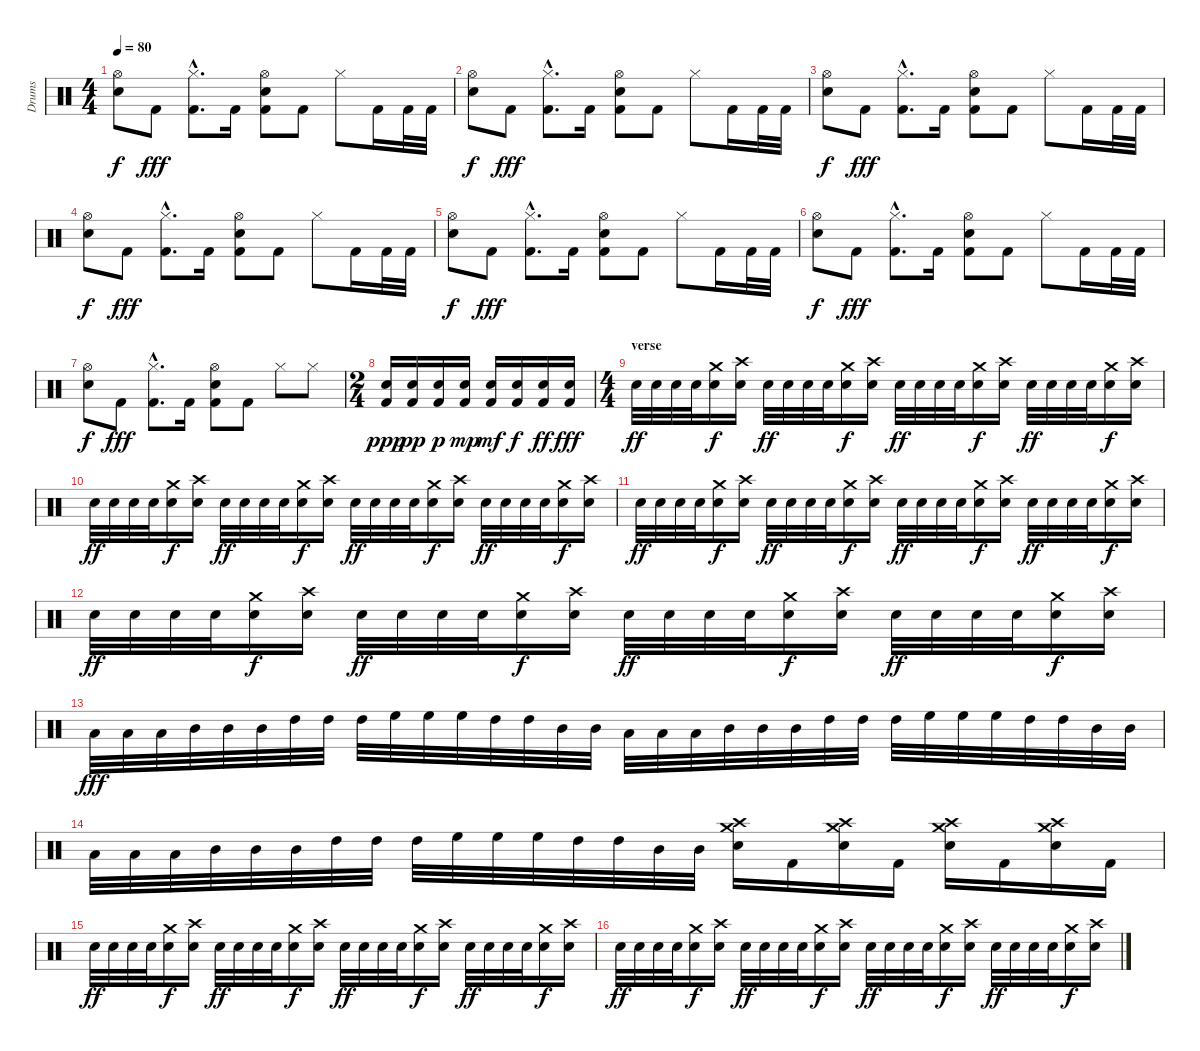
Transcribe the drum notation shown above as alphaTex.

\track ("Drums" "Drums") {instrument percussion}
\staff {score}
\articulation defaults
\ts (4 4)
\tempo 80
\clef neutral
\ks c
("Hi-Hat (open)" "Electric Snare (hit)").8{dy f} "Kick (hit) 2".8{dy fff} ("Hi-Hat (closed)"{hac} "Kick (hit) 2"{hac}).8{d} "Kick (hit) 2".16 ("Hi-Hat (open)" "Kick (hit) 2" "Snare (hit) 2").8 "Kick (hit) 2".8 "Hi-Hat (closed)".8 "Kick (hit) 2".16 "Kick (hit) 2".32 "Kick (hit) 2".32 |
("Hi-Hat (open)" "Electric Snare (hit)").8{dy f} "Kick (hit) 2".8{dy fff} ("Hi-Hat (closed)"{hac} "Kick (hit) 2"{hac}).8{d} "Kick (hit) 2".16 ("Hi-Hat (open)" "Kick (hit) 2" "Snare (hit) 2").8 "Kick (hit) 2".8 "Hi-Hat (closed)".8 "Kick (hit) 2".16 "Kick (hit) 2".32 "Kick (hit) 2".32 |
("Hi-Hat (open)" "Electric Snare (hit)").8{dy f} "Kick (hit) 2".8{dy fff} ("Hi-Hat (closed)"{hac} "Kick (hit) 2"{hac}).8{d} "Kick (hit) 2".16 ("Hi-Hat (open)" "Kick (hit) 2" "Snare (hit) 2").8 "Kick (hit) 2".8 "Hi-Hat (closed)".8 "Kick (hit) 2".16 "Kick (hit) 2".32 "Kick (hit) 2".32 |
("Hi-Hat (open)" "Electric Snare (hit)").8{dy f} "Kick (hit) 2".8{dy fff} ("Hi-Hat (closed)"{hac} "Kick (hit) 2"{hac}).8{d} "Kick (hit) 2".16 ("Hi-Hat (open)" "Kick (hit) 2" "Snare (hit) 2").8 "Kick (hit) 2".8 "Hi-Hat (closed)".8 "Kick (hit) 2".16 "Kick (hit) 2".32 "Kick (hit) 2".32 |
("Hi-Hat (open)" "Electric Snare (hit)").8{dy f} "Kick (hit) 2".8{dy fff} ("Hi-Hat (closed)"{hac} "Kick (hit) 2"{hac}).8{d} "Kick (hit) 2".16 ("Hi-Hat (open)" "Kick (hit) 2" "Snare (hit) 2").8 "Kick (hit) 2".8 "Hi-Hat (closed)".8 "Kick (hit) 2".16 "Kick (hit) 2".32 "Kick (hit) 2".32 |
("Hi-Hat (open)" "Electric Snare (hit)").8{dy f} "Kick (hit) 2".8{dy fff} ("Hi-Hat (closed)"{hac} "Kick (hit) 2"{hac}).8{d} "Kick (hit) 2".16 ("Hi-Hat (open)" "Kick (hit) 2" "Snare (hit) 2").8 "Kick (hit) 2".8 "Hi-Hat (closed)".8 "Kick (hit) 2".16 "Kick (hit) 2".32 "Kick (hit) 2".32 |
("Hi-Hat (open)" "Electric Snare (hit)").8{dy f} "Kick (hit) 2".8{dy fff} ("Hi-Hat (closed)"{hac} "Kick (hit) 2"{hac}).8{d} "Kick (hit) 2".16 ("Hi-Hat (open)" "Kick (hit) 2" "Snare (hit) 2").8 "Kick (hit) 2".8 "Hi-Hat (closed)".8 "Hi-Hat (closed)".8 |
\ts (2 4)
("Electric Snare (hit)" "Kick (hit) 2").16{dy ppp} ("Electric Snare (hit)" "Kick (hit) 2").16{dy pp} ("Electric Snare (hit)" "Kick (hit) 2").16{dy p} ("Electric Snare (hit)" "Kick (hit) 2").16{dy mp} ("Electric Snare (hit)" "Kick (hit) 2").16{dy mf} ("Electric Snare (hit)" "Kick (hit) 2").16{dy f} ("Electric Snare (hit)" "Kick (hit) 2").16{dy ff} ("Electric Snare (hit)" "Kick (hit) 2").16{dy fff} |
\ts (4 4)
\section ("" "verse")
"Electric Snare (hit)".32{dy ff} "Electric Snare (hit)".32 "Electric Snare (hit)".32 "Electric Snare (hit)".32 ("Snare (hit) 2" "Crash medium (hit)").16{dy f} ("Snare (hit) 2" "Crash high (hit)").16 "Electric Snare (hit)".32{dy ff} "Electric Snare (hit)".32 "Electric Snare (hit)".32 "Electric Snare (hit)".32 ("Snare (hit) 2" "Crash medium (hit)").16{dy f} ("Snare (hit) 2" "Crash high (hit)").16 "Electric Snare (hit)".32{dy ff} "Electric Snare (hit)".32 "Electric Snare (hit)".32 "Electric Snare (hit)".32 ("Snare (hit) 2" "Crash medium (hit)").16{dy f} ("Snare (hit) 2" "Crash high (hit)").16 "Electric Snare (hit)".32{dy ff} "Electric Snare (hit)".32 "Electric Snare (hit)".32 "Electric Snare (hit)".32 ("Snare (hit) 2" "Crash medium (hit)").16{dy f} ("Snare (hit) 2" "Crash high (hit)").16 |
"Electric Snare (hit)".32{dy ff} "Electric Snare (hit)".32 "Electric Snare (hit)".32 "Electric Snare (hit)".32 ("Snare (hit) 2" "Crash medium (hit)").16{dy f} ("Snare (hit) 2" "Crash high (hit)").16 "Electric Snare (hit)".32{dy ff} "Electric Snare (hit)".32 "Electric Snare (hit)".32 "Electric Snare (hit)".32 ("Snare (hit) 2" "Crash medium (hit)").16{dy f} ("Snare (hit) 2" "Crash high (hit)").16 "Electric Snare (hit)".32{dy ff} "Electric Snare (hit)".32 "Electric Snare (hit)".32 "Electric Snare (hit)".32 ("Snare (hit) 2" "Crash medium (hit)").16{dy f} ("Snare (hit) 2" "Crash high (hit)").16 "Electric Snare (hit)".32{dy ff} "Electric Snare (hit)".32 "Electric Snare (hit)".32 "Electric Snare (hit)".32 ("Snare (hit) 2" "Crash medium (hit)").16{dy f} ("Snare (hit) 2" "Crash high (hit)").16 |
"Electric Snare (hit)".32{dy ff} "Electric Snare (hit)".32 "Electric Snare (hit)".32 "Electric Snare (hit)".32 ("Snare (hit) 2" "Crash medium (hit)").16{dy f} ("Snare (hit) 2" "Crash high (hit)").16 "Electric Snare (hit)".32{dy ff} "Electric Snare (hit)".32 "Electric Snare (hit)".32 "Electric Snare (hit)".32 ("Snare (hit) 2" "Crash medium (hit)").16{dy f} ("Snare (hit) 2" "Crash high (hit)").16 "Electric Snare (hit)".32{dy ff} "Electric Snare (hit)".32 "Electric Snare (hit)".32 "Electric Snare (hit)".32 ("Snare (hit) 2" "Crash medium (hit)").16{dy f} ("Snare (hit) 2" "Crash high (hit)").16 "Electric Snare (hit)".32{dy ff} "Electric Snare (hit)".32 "Electric Snare (hit)".32 "Electric Snare (hit)".32 ("Snare (hit) 2" "Crash medium (hit)").16{dy f} ("Snare (hit) 2" "Crash high (hit)").16 |
"Electric Snare (hit)".32{dy ff} "Electric Snare (hit)".32 "Electric Snare (hit)".32 "Electric Snare (hit)".32 ("Snare (hit) 2" "Crash medium (hit)").16{dy f} ("Snare (hit) 2" "Crash high (hit)").16 "Electric Snare (hit)".32{dy ff} "Electric Snare (hit)".32 "Electric Snare (hit)".32 "Electric Snare (hit)".32 ("Snare (hit) 2" "Crash medium (hit)").16{dy f} ("Snare (hit) 2" "Crash high (hit)").16 "Electric Snare (hit)".32{dy ff} "Electric Snare (hit)".32 "Electric Snare (hit)".32 "Electric Snare (hit)".32 ("Snare (hit) 2" "Crash medium (hit)").16{dy f} ("Snare (hit) 2" "Crash high (hit)").16 "Electric Snare (hit)".32{dy ff} "Electric Snare (hit)".32 "Electric Snare (hit)".32 "Electric Snare (hit)".32 ("Snare (hit) 2" "Crash medium (hit)").16{dy f} ("Snare (hit) 2" "Crash high (hit)").16 |
"Low Tom (hit)".32{dy fff} "Low Tom (hit)".32 "Low Tom (hit)".32 "Mid Tom (hit)".32 "Mid Tom (hit)".32 "Mid Tom (hit)".32 "High Tom (hit)".32 "High Tom (hit)".32 "High Tom (hit)".32 "High Floor Tom (hit)".32 "High Floor Tom (hit)".32 "High Floor Tom (hit)".32 "High Tom (hit)".32 "High Tom (hit)".32 "Mid Tom (hit)".32 "Mid Tom (hit)".32 "Low Tom (hit)".32 "Low Tom (hit)".32 "Low Tom (hit)".32 "Mid Tom (hit)".32 "Mid Tom (hit)".32 "Mid Tom (hit)".32 "High Tom (hit)".32 "High Tom (hit)".32 "High Tom (hit)".32 "High Floor Tom (hit)".32 "High Floor Tom (hit)".32 "High Floor Tom (hit)".32 "High Tom (hit)".32 "High Tom (hit)".32 "Mid Tom (hit)".32 "Mid Tom (hit)".32 |
"Low Tom (hit)".32 "Low Tom (hit)".32 "Low Tom (hit)".32 "Mid Tom (hit)".32 "Mid Tom (hit)".32 "Mid Tom (hit)".32 "High Tom (hit)".32 "High Tom (hit)".32 "High Tom (hit)".32 "High Floor Tom (hit)".32 "High Floor Tom (hit)".32 "High Floor Tom (hit)".32 "High Tom (hit)".32 "High Tom (hit)".32 "Mid Tom (hit)".32 "Mid Tom (hit)".32 ("Crash high (hit)" "Crash medium (hit)" "Electric Snare (hit)").16 "Kick (hit) 2".16 ("Crash high (hit)" "Crash medium (hit)" "Electric Snare (hit)").16 "Kick (hit) 2".16 ("Crash high (hit)" "Crash medium (hit)" "Electric Snare (hit)").16 "Kick (hit) 2".16 ("Crash high (hit)" "Crash medium (hit)" "Electric Snare (hit)").16 "Kick (hit) 2".16 |
"Electric Snare (hit)".32{dy ff} "Electric Snare (hit)".32 "Electric Snare (hit)".32 "Electric Snare (hit)".32 ("Snare (hit) 2" "Crash medium (hit)").16{dy f} ("Snare (hit) 2" "Crash high (hit)").16 "Electric Snare (hit)".32{dy ff} "Electric Snare (hit)".32 "Electric Snare (hit)".32 "Electric Snare (hit)".32 ("Snare (hit) 2" "Crash medium (hit)").16{dy f} ("Snare (hit) 2" "Crash high (hit)").16 "Electric Snare (hit)".32{dy ff} "Electric Snare (hit)".32 "Electric Snare (hit)".32 "Electric Snare (hit)".32 ("Snare (hit) 2" "Crash medium (hit)").16{dy f} ("Snare (hit) 2" "Crash high (hit)").16 "Electric Snare (hit)".32{dy ff} "Electric Snare (hit)".32 "Electric Snare (hit)".32 "Electric Snare (hit)".32 ("Snare (hit) 2" "Crash medium (hit)").16{dy f} ("Snare (hit) 2" "Crash high (hit)").16 |
"Electric Snare (hit)".32{dy ff} "Electric Snare (hit)".32 "Electric Snare (hit)".32 "Electric Snare (hit)".32 ("Snare (hit) 2" "Crash medium (hit)").16{dy f} ("Snare (hit) 2" "Crash high (hit)").16 "Electric Snare (hit)".32{dy ff} "Electric Snare (hit)".32 "Electric Snare (hit)".32 "Electric Snare (hit)".32 ("Snare (hit) 2" "Crash medium (hit)").16{dy f} ("Snare (hit) 2" "Crash high (hit)").16 "Electric Snare (hit)".32{dy ff} "Electric Snare (hit)".32 "Electric Snare (hit)".32 "Electric Snare (hit)".32 ("Snare (hit) 2" "Crash medium (hit)").16{dy f} ("Snare (hit) 2" "Crash high (hit)").16 "Electric Snare (hit)".32{dy ff} "Electric Snare (hit)".32 "Electric Snare (hit)".32 "Electric Snare (hit)".32 ("Snare (hit) 2" "Crash medium (hit)").16{dy f} ("Snare (hit) 2" "Crash high (hit)").16
